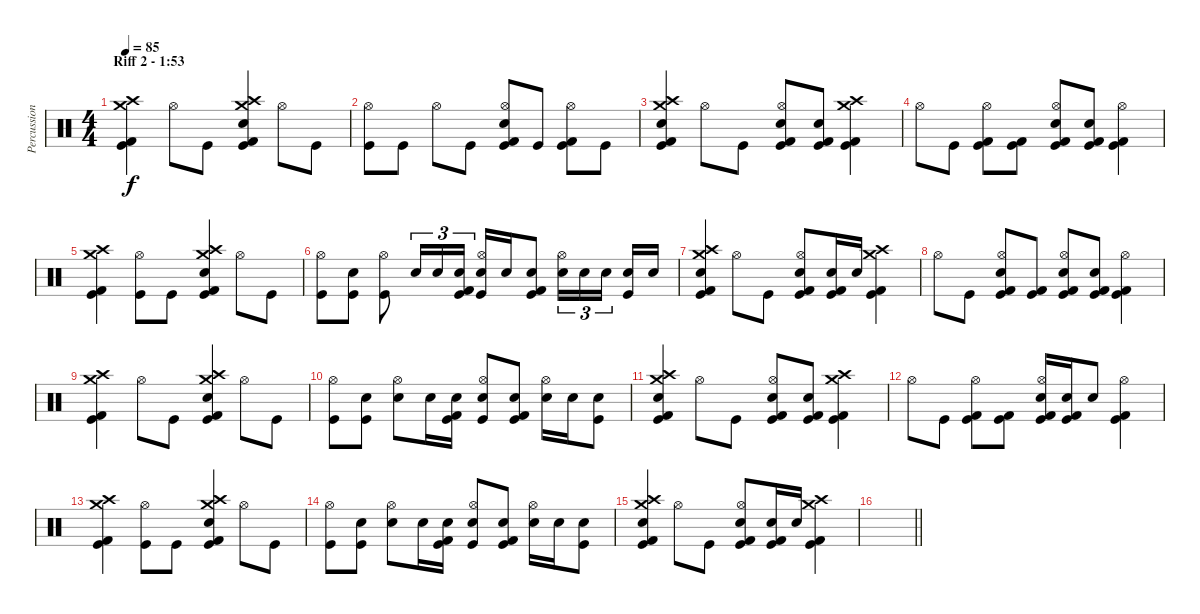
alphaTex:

\track ("Percussion" "Percussion") {instrument percussion}
\staff {score}
\articulation defaults
\ts (4 4)
\section ("" "Riff 2 - 1:53")
\tempo 85
\clef neutral
\ks c
("Kick (hit)" "Kick (hit) 2" "Crash high (hit)" "Crash medium (hit)").4{dy f} "Hi-Hat (open)".8 "Kick (hit)".8 ("Kick (hit)" "Kick (hit) 2" "Snare (hit) 2" "Crash high (hit)" "Crash medium (hit)").4 "Hi-Hat (open)".8 "Kick (hit)".8 |
("Kick (hit)" "Hi-Hat (open)").8 "Kick (hit)".8 "Hi-Hat (open)".8 "Kick (hit)".8 ("Kick (hit)" "Kick (hit) 2" "Snare (hit) 2" "Hi-Hat (open)").8 "Kick (hit)".8 ("Kick (hit)" "Kick (hit) 2" "Hi-Hat (open)").8 "Kick (hit)".8 |
("Kick (hit)" "Kick (hit) 2" "Snare (hit) 2" "Crash high (hit)" "Crash medium (hit)").4 "Hi-Hat (open)".8 "Kick (hit)".8 ("Kick (hit)" "Kick (hit) 2" "Snare (hit) 2" "Hi-Hat (open)").8 ("Kick (hit)" "Kick (hit) 2" "Snare (hit) 2").8 ("Kick (hit)" "Kick (hit) 2" "Crash high (hit)" "Crash medium (hit)").4 |
"Hi-Hat (open)".8 "Kick (hit)".8 ("Kick (hit)" "Kick (hit) 2" "Hi-Hat (open)").8 ("Kick (hit)" "Kick (hit) 2").8 ("Kick (hit)" "Kick (hit) 2" "Snare (hit) 2" "Hi-Hat (open)").8 ("Kick (hit)" "Kick (hit) 2" "Snare (hit) 2").8 ("Kick (hit)" "Kick (hit) 2" "Hi-Hat (open)").4 |
("Kick (hit)" "Kick (hit) 2" "Crash high (hit)" "Crash medium (hit)").4 ("Kick (hit)" "Hi-Hat (open)").8 "Kick (hit)".8 ("Kick (hit)" "Kick (hit) 2" "Snare (hit) 2" "Crash high (hit)" "Crash medium (hit)").4 "Hi-Hat (open)".8 "Kick (hit)".8 |
("Kick (hit)" "Hi-Hat (open)").8 ("Kick (hit)" "Snare (hit) 2").8 ("Kick (hit)" "Hi-Hat (open)").8 "Snare (hit) 2".16{tu (3 2)} "Snare (hit) 2".16{tu (3 2)} ("Kick (hit)" "Kick (hit) 2" "Snare (hit) 2").16{tu (3 2)} ("Kick (hit)" "Snare (hit) 2" "Hi-Hat (open)").16 "Snare (hit) 2".16 ("Kick (hit)" "Kick (hit) 2" "Snare (hit) 2").8 ("Snare (hit) 2" "Hi-Hat (open)").16{tu (3 2)} "Snare (hit) 2".16{tu (3 2)} "Snare (hit) 2".16{tu (3 2) beam splitsecondary} ("Kick (hit)" "Snare (hit) 2").16 "Snare (hit) 2".16 |
("Kick (hit)" "Kick (hit) 2" "Snare (hit) 2" "Crash high (hit)" "Crash medium (hit)").4 "Hi-Hat (open)".8 "Kick (hit)".8 ("Kick (hit)" "Kick (hit) 2" "Snare (hit) 2" "Hi-Hat (open)").8 ("Kick (hit)" "Kick (hit) 2" "Snare (hit) 2").16 "Snare (hit) 2".16 ("Kick (hit)" "Kick (hit) 2" "Crash high (hit)" "Crash medium (hit)").4 |
"Hi-Hat (open)".8 "Kick (hit)".8 ("Kick (hit)" "Kick (hit) 2" "Snare (hit) 2" "Hi-Hat (open)").8 ("Kick (hit)" "Kick (hit) 2").8 ("Kick (hit)" "Kick (hit) 2" "Snare (hit) 2" "Hi-Hat (open)").8 ("Kick (hit)" "Kick (hit) 2" "Snare (hit) 2").8 ("Kick (hit)" "Kick (hit) 2" "Hi-Hat (open)").4 |
("Kick (hit)" "Kick (hit) 2" "Crash high (hit)" "Crash medium (hit)").4 "Hi-Hat (open)".8 "Kick (hit)".8 ("Kick (hit)" "Kick (hit) 2" "Snare (hit) 2" "Crash high (hit)" "Crash medium (hit)").4 "Hi-Hat (open)".8 "Kick (hit)".8 |
("Kick (hit)" "Hi-Hat (open)").8 ("Kick (hit)" "Snare (hit) 2").8 ("Snare (hit) 2" "Hi-Hat (open)").8 "Snare (hit) 2".16 ("Kick (hit)" "Kick (hit) 2" "Snare (hit) 2").16 ("Kick (hit)" "Snare (hit) 2" "Hi-Hat (open)").8 ("Kick (hit)" "Kick (hit) 2" "Snare (hit) 2").8 ("Snare (hit) 2" "Hi-Hat (open)").16 "Snare (hit) 2".16 ("Kick (hit)" "Snare (hit) 2").8 |
("Kick (hit)" "Kick (hit) 2" "Snare (hit) 2" "Crash high (hit)" "Crash medium (hit)").4 "Hi-Hat (open)".8 "Kick (hit)".8 ("Kick (hit)" "Kick (hit) 2" "Snare (hit) 2" "Hi-Hat (open)").8 ("Kick (hit)" "Kick (hit) 2" "Snare (hit) 2").8 ("Kick (hit)" "Kick (hit) 2" "Crash high (hit)" "Crash medium (hit)").4 |
"Hi-Hat (open)".8 "Kick (hit)".8 ("Kick (hit)" "Kick (hit) 2" "Hi-Hat (open)").8 ("Kick (hit)" "Kick (hit) 2").8 ("Kick (hit)" "Kick (hit) 2" "Snare (hit) 2" "Hi-Hat (open)").16 ("Kick (hit)" "Kick (hit) 2" "Snare (hit) 2").16 "Snare (hit) 2".8 ("Kick (hit)" "Kick (hit) 2" "Hi-Hat (open)").4 |
("Kick (hit)" "Kick (hit) 2" "Crash high (hit)" "Crash medium (hit)").4 ("Kick (hit)" "Hi-Hat (open)").8 "Kick (hit)".8 ("Kick (hit)" "Kick (hit) 2" "Snare (hit) 2" "Crash high (hit)" "Crash medium (hit)").4 "Hi-Hat (open)".8 "Kick (hit)".8 |
("Kick (hit)" "Hi-Hat (open)").8 ("Kick (hit)" "Snare (hit) 2").8 ("Snare (hit) 2" "Hi-Hat (open)").8 "Snare (hit) 2".16 ("Kick (hit)" "Kick (hit) 2" "Snare (hit) 2").16 ("Kick (hit)" "Snare (hit) 2" "Hi-Hat (open)").8 ("Kick (hit)" "Kick (hit) 2" "Snare (hit) 2").8 ("Snare (hit) 2" "Hi-Hat (open)").16 "Snare (hit) 2".16 ("Kick (hit)" "Snare (hit) 2").8 |
("Kick (hit)" "Kick (hit) 2" "Snare (hit) 2" "Crash high (hit)" "Crash medium (hit)").4 "Hi-Hat (open)".8 "Kick (hit)".8 ("Kick (hit)" "Kick (hit) 2" "Snare (hit) 2" "Hi-Hat (open)").8 ("Kick (hit)" "Kick (hit) 2" "Snare (hit) 2").16 "Snare (hit) 2".16 ("Kick (hit)" "Kick (hit) 2" "Crash high (hit)" "Crash medium (hit)").4 |
\barLineRight lightlight
